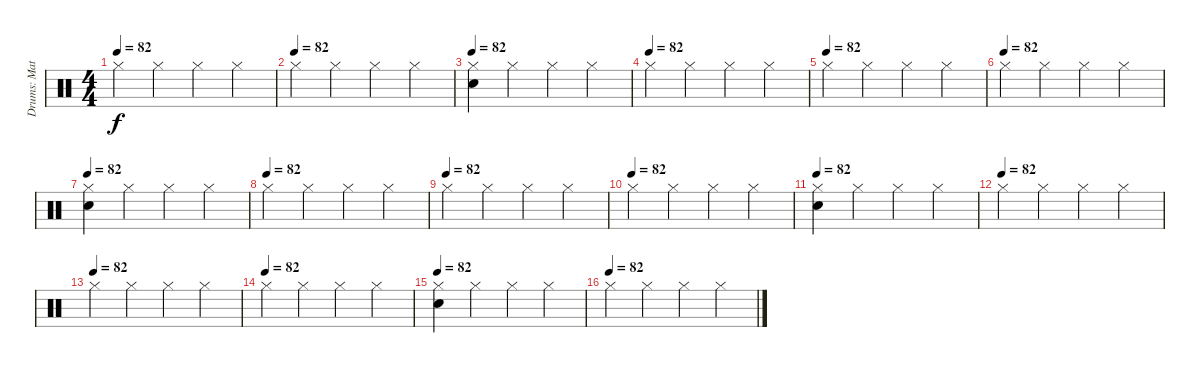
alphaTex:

\track ("Drums: Matt" "Drums: Mat") {instrument percussion}
\staff {score}
\articulation defaults
\ts (4 4)
\tempo 82
\clef neutral
\ks c "Hi-Hat (closed)".4{dy f} "Hi-Hat (closed)".4 "Hi-Hat (closed)".4 "Hi-Hat (closed)".4
|
\tempo (82)
"Hi-Hat (closed)".4 "Hi-Hat (closed)".4 "Hi-Hat (closed)".4 "Hi-Hat (closed)".4 |
\tempo 82
("Electric Snare (hit)" "Hi-Hat (closed)").4 "Hi-Hat (closed)".4 "Hi-Hat (closed)".4 "Hi-Hat (closed)".4 |
\tempo (82)
"Hi-Hat (closed)".4 "Hi-Hat (closed)".4 "Hi-Hat (closed)".4 "Hi-Hat (closed)".4 |
\tempo (82)
"Hi-Hat (closed)".4 "Hi-Hat (closed)".4 "Hi-Hat (closed)".4 "Hi-Hat (closed)".4 |
\tempo (82)
"Hi-Hat (closed)".4 "Hi-Hat (closed)".4 "Hi-Hat (closed)".4 "Hi-Hat (closed)".4 |
\tempo 82
("Electric Snare (hit)" "Hi-Hat (closed)").4 "Hi-Hat (closed)".4 "Hi-Hat (closed)".4 "Hi-Hat (closed)".4 |
\tempo (82)
"Hi-Hat (closed)".4 "Hi-Hat (closed)".4 "Hi-Hat (closed)".4 "Hi-Hat (closed)".4 |
\tempo (82)
"Hi-Hat (closed)".4 "Hi-Hat (closed)".4 "Hi-Hat (closed)".4 "Hi-Hat (closed)".4 |
\tempo (82)
"Hi-Hat (closed)".4 "Hi-Hat (closed)".4 "Hi-Hat (closed)".4 "Hi-Hat (closed)".4 |
\tempo 82
("Electric Snare (hit)" "Hi-Hat (closed)").4 "Hi-Hat (closed)".4 "Hi-Hat (closed)".4 "Hi-Hat (closed)".4 |
\tempo (82)
"Hi-Hat (closed)".4 "Hi-Hat (closed)".4 "Hi-Hat (closed)".4 "Hi-Hat (closed)".4 |
\tempo (82)
"Hi-Hat (closed)".4 "Hi-Hat (closed)".4 "Hi-Hat (closed)".4 "Hi-Hat (closed)".4 |
\tempo (82)
"Hi-Hat (closed)".4 "Hi-Hat (closed)".4 "Hi-Hat (closed)".4 "Hi-Hat (closed)".4 |
\tempo 82
("Electric Snare (hit)" "Hi-Hat (closed)").4 "Hi-Hat (closed)".4 "Hi-Hat (closed)".4 "Hi-Hat (closed)".4 |
\tempo (82)
"Hi-Hat (closed)".4 "Hi-Hat (closed)".4 "Hi-Hat (closed)".4 "Hi-Hat (closed)".4
